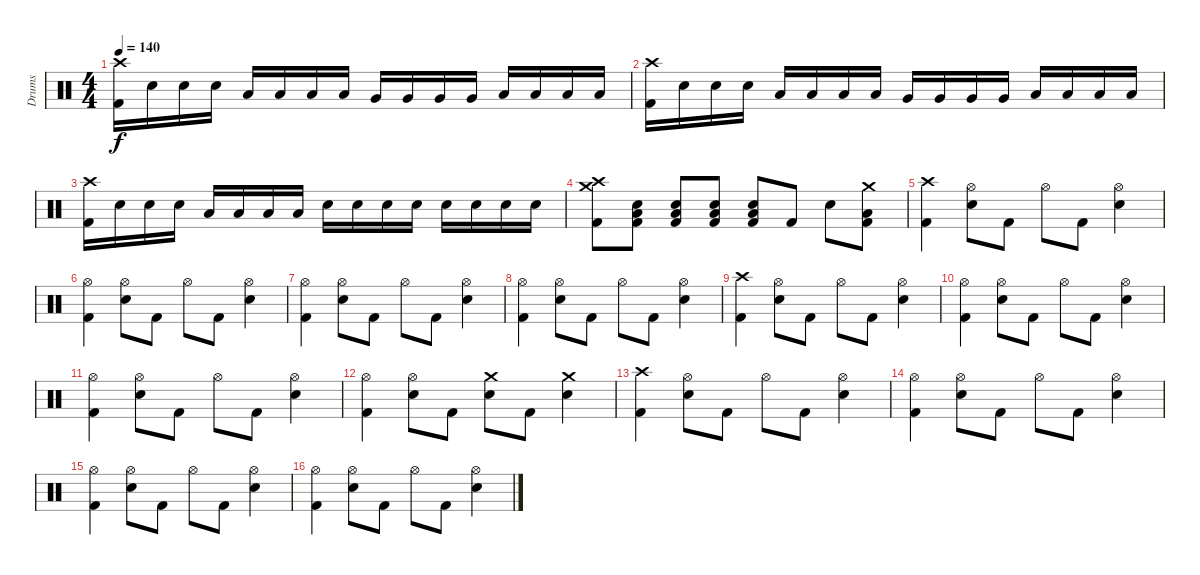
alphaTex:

\track ("Drums" "Drums") {instrument percussion}
\staff {score}
\articulation defaults
\ts (4 4)
\tempo 140
\clef neutral
\ks c
("Crash high (hit)" "Kick (hit) 2").16{dy f} "Snare (hit) 2".16 "Snare (hit) 2".16 "Snare (hit) 2".16 "Low Tom (hit)".16 "Low Tom (hit)".16 "Low Tom (hit)".16 "Low Tom (hit)".16 "Very Low Tom (hit)".16 "Very Low Tom (hit)".16 "Very Low Tom (hit)".16 "Very Low Tom (hit)".16 "Low Floor Tom (hit)".16 "Low Floor Tom (hit)".16 "Low Floor Tom (hit)".16 "Low Floor Tom (hit)".16 |
("Crash high (hit)" "Kick (hit) 2").16 "Snare (hit) 2".16 "Snare (hit) 2".16 "Snare (hit) 2".16 "Low Tom (hit)".16 "Low Tom (hit)".16 "Low Tom (hit)".16 "Low Tom (hit)".16 "Very Low Tom (hit)".16 "Very Low Tom (hit)".16 "Very Low Tom (hit)".16 "Very Low Tom (hit)".16 "Low Floor Tom (hit)".16 "Low Floor Tom (hit)".16 "Low Floor Tom (hit)".16 "Low Floor Tom (hit)".16 |
("Crash high (hit)" "Kick (hit) 2").16 "Snare (hit) 2".16 "Snare (hit) 2".16 "Snare (hit) 2".16 "Low Tom (hit)".16 "Low Tom (hit)".16 "Low Tom (hit)".16 "Low Tom (hit)".16 "Snare (hit) 2".16 "Snare (hit) 2".16 "Snare (hit) 2".16 "Snare (hit) 2".16 "Snare (hit) 2".16 "Snare (hit) 2".16 "Snare (hit) 2".16 "Snare (hit) 2".16 |
("Crash high (hit)" "Crash medium (hit)" "Kick (hit) 2").8 ("Snare (hit) 2" "Low Floor Tom (hit)" "Kick (hit) 2").8 ("Snare (hit) 2" "Low Floor Tom (hit)" "Kick (hit) 2").8 ("Snare (hit) 2" "Low Floor Tom (hit)" "Kick (hit) 2").8 ("Snare (hit) 2" "Low Floor Tom (hit)" "Kick (hit) 2").8 "Kick (hit) 2".8 "Snare (hit) 2".8 ("Crash medium (hit)" "Low Floor Tom (hit)" "Kick (hit) 2").8 |
("Crash high (hit)" "Kick (hit) 2").4 ("Hi-Hat (open)" "Snare (hit) 2").8 "Kick (hit) 2".8 "Hi-Hat (open)".8 "Kick (hit) 2".8 ("Hi-Hat (open)" "Snare (hit) 2").4 |
("Hi-Hat (open)" "Kick (hit) 2").4 ("Hi-Hat (open)" "Snare (hit) 2").8 "Kick (hit) 2".8 "Hi-Hat (open)".8 "Kick (hit) 2".8 ("Hi-Hat (open)" "Snare (hit) 2").4 |
("Hi-Hat (open)" "Kick (hit) 2").4 ("Hi-Hat (open)" "Snare (hit) 2").8 "Kick (hit) 2".8 "Hi-Hat (open)".8 "Kick (hit) 2".8 ("Hi-Hat (open)" "Snare (hit) 2").4 |
("Hi-Hat (open)" "Kick (hit) 2").4 ("Hi-Hat (open)" "Snare (hit) 2").8 "Kick (hit) 2".8 "Hi-Hat (open)".8 "Kick (hit) 2".8 ("Hi-Hat (open)" "Snare (hit) 2").4 |
("Crash high (hit)" "Kick (hit) 2").4 ("Hi-Hat (open)" "Snare (hit) 2").8 "Kick (hit) 2".8 "Hi-Hat (open)".8 "Kick (hit) 2".8 ("Hi-Hat (open)" "Snare (hit) 2").4 |
("Hi-Hat (open)" "Kick (hit) 2").4 ("Hi-Hat (open)" "Snare (hit) 2").8 "Kick (hit) 2".8 "Hi-Hat (open)".8 "Kick (hit) 2".8 ("Hi-Hat (open)" "Snare (hit) 2").4 |
("Hi-Hat (open)" "Kick (hit) 2").4 ("Hi-Hat (open)" "Snare (hit) 2").8 "Kick (hit) 2".8 "Hi-Hat (open)".8 "Kick (hit) 2".8 ("Hi-Hat (open)" "Snare (hit) 2").4 |
("Hi-Hat (open)" "Kick (hit) 2").4 ("Hi-Hat (open)" "Snare (hit) 2").8 "Kick (hit) 2".8 ("Crash medium (hit)" "Snare (hit) 2").8 "Kick (hit) 2".8 ("Crash medium (hit)" "Snare (hit) 2").4 |
("Crash high (hit)" "Kick (hit) 2").4 ("Hi-Hat (open)" "Snare (hit) 2").8 "Kick (hit) 2".8 "Hi-Hat (open)".8 "Kick (hit) 2".8 ("Hi-Hat (open)" "Snare (hit) 2").4 |
("Hi-Hat (open)" "Kick (hit) 2").4 ("Hi-Hat (open)" "Snare (hit) 2").8 "Kick (hit) 2".8 "Hi-Hat (open)".8 "Kick (hit) 2".8 ("Hi-Hat (open)" "Snare (hit) 2").4 |
("Hi-Hat (open)" "Kick (hit) 2").4 ("Hi-Hat (open)" "Snare (hit) 2").8 "Kick (hit) 2".8 "Hi-Hat (open)".8 "Kick (hit) 2".8 ("Hi-Hat (open)" "Snare (hit) 2").4 |
("Hi-Hat (open)" "Kick (hit) 2").4 ("Hi-Hat (open)" "Snare (hit) 2").8 "Kick (hit) 2".8 "Hi-Hat (open)".8 "Kick (hit) 2".8 ("Hi-Hat (open)" "Snare (hit) 2").4
